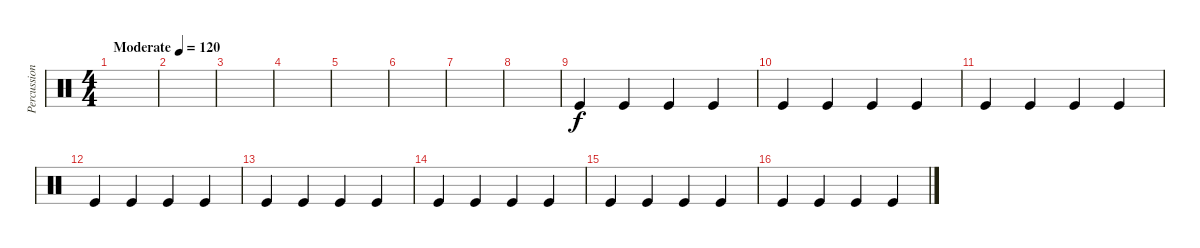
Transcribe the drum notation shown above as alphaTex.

\track ("Percussion" "Percussion") {instrument percussion}
\staff {score}
\articulation defaults
\ts (4 4)
\tempo (120 "Moderate")
\clef neutral
\ks c
|
|
|
|
|
|
|
|
"Kick (hit)".4 "Kick (hit)".4 "Kick (hit)".4 "Kick (hit)".4 |
"Kick (hit)".4 "Kick (hit)".4 "Kick (hit)".4 "Kick (hit)".4 |
"Kick (hit)".4 "Kick (hit)".4 "Kick (hit)".4 "Kick (hit)".4 |
"Kick (hit)".4 "Kick (hit)".4 "Kick (hit)".4 "Kick (hit)".4 |
"Kick (hit)".4 "Kick (hit)".4 "Kick (hit)".4 "Kick (hit)".4 |
"Kick (hit)".4 "Kick (hit)".4 "Kick (hit)".4 "Kick (hit)".4 |
"Kick (hit)".4 "Kick (hit)".4 "Kick (hit)".4 "Kick (hit)".4 |
"Kick (hit)".4 "Kick (hit)".4 "Kick (hit)".4 "Kick (hit)".4
